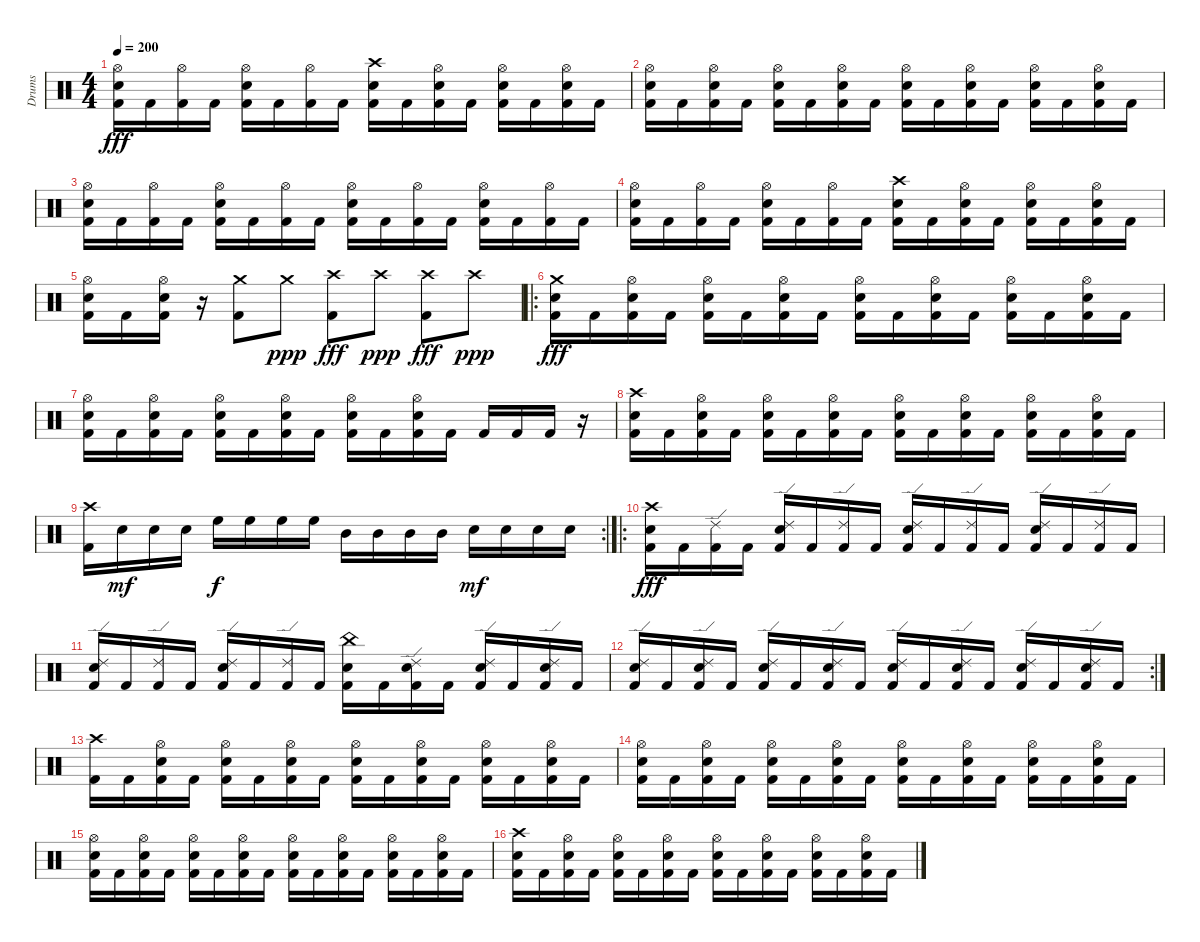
\track ("Drums" "Drums") {instrument percussion}
\staff {score}
\articulation defaults
\ts (4 4)
\tempo 200
\clef neutral
\ks c
("Hi-Hat (open)" "Electric Snare (hit)" "Kick (hit) 2").16{dy fff} "Kick (hit) 2".16 ("Hi-Hat (open)" "Kick (hit) 2").16 "Kick (hit) 2".16 ("Hi-Hat (open)" "Electric Snare (hit)" "Kick (hit) 2").16 "Kick (hit) 2".16 ("Hi-Hat (open)" "Kick (hit) 2").16 "Kick (hit) 2".16 ("Crash high (hit)" "Electric Snare (hit)" "Kick (hit) 2").16 "Kick (hit) 2".16 ("Hi-Hat (open)" "Electric Snare (hit)" "Kick (hit) 2").16 "Kick (hit) 2".16 ("Hi-Hat (open)" "Electric Snare (hit)" "Kick (hit) 2").16 "Kick (hit) 2".16 ("Hi-Hat (open)" "Electric Snare (hit)" "Kick (hit) 2").16 "Kick (hit) 2".16 |
("Hi-Hat (open)" "Electric Snare (hit)" "Kick (hit) 2").16 "Kick (hit) 2".16 ("Hi-Hat (open)" "Electric Snare (hit)" "Kick (hit) 2").16 "Kick (hit) 2".16 ("Hi-Hat (open)" "Electric Snare (hit)" "Kick (hit) 2").16 "Kick (hit) 2".16 ("Hi-Hat (open)" "Electric Snare (hit)" "Kick (hit) 2").16 "Kick (hit) 2".16 ("Hi-Hat (open)" "Electric Snare (hit)" "Kick (hit) 2").16 "Kick (hit) 2".16 ("Hi-Hat (open)" "Electric Snare (hit)" "Kick (hit) 2").16 "Kick (hit) 2".16 ("Hi-Hat (open)" "Electric Snare (hit)" "Kick (hit) 2").16 "Kick (hit) 2".16 ("Hi-Hat (open)" "Electric Snare (hit)" "Kick (hit) 2").16 "Kick (hit) 2".16 |
("Hi-Hat (open)" "Electric Snare (hit)" "Kick (hit) 2").16 "Kick (hit) 2".16 ("Hi-Hat (open)" "Kick (hit) 2").16 "Kick (hit) 2".16 ("Hi-Hat (open)" "Electric Snare (hit)" "Kick (hit) 2").16 "Kick (hit) 2".16 ("Hi-Hat (open)" "Kick (hit) 2").16 "Kick (hit) 2".16 ("Hi-Hat (open)" "Electric Snare (hit)" "Kick (hit) 2").16 "Kick (hit) 2".16 ("Hi-Hat (open)" "Kick (hit) 2").16 "Kick (hit) 2".16 ("Hi-Hat (open)" "Electric Snare (hit)" "Kick (hit) 2").16 "Kick (hit) 2".16 ("Hi-Hat (open)" "Kick (hit) 2").16 "Kick (hit) 2".16 |
("Hi-Hat (open)" "Electric Snare (hit)" "Kick (hit) 2").16 "Kick (hit) 2".16 ("Hi-Hat (open)" "Kick (hit) 2").16 "Kick (hit) 2".16 ("Hi-Hat (open)" "Electric Snare (hit)" "Kick (hit) 2").16 "Kick (hit) 2".16 ("Hi-Hat (open)" "Kick (hit) 2").16 "Kick (hit) 2".16 ("Crash high (hit)" "Electric Snare (hit)" "Kick (hit) 2").16 "Kick (hit) 2".16 ("Hi-Hat (open)" "Electric Snare (hit)" "Kick (hit) 2").16 "Kick (hit) 2".16 ("Hi-Hat (open)" "Electric Snare (hit)" "Kick (hit) 2").16 "Kick (hit) 2".16 ("Hi-Hat (open)" "Electric Snare (hit)" "Kick (hit) 2").16 "Kick (hit) 2".16 |
("Hi-Hat (open)" "Electric Snare (hit)" "Kick (hit) 2").16 "Kick (hit) 2".16 ("Hi-Hat (open)" "Electric Snare (hit)" "Kick (hit) 2").16 r.16 ("Crash medium (hit)" "Kick (hit) 2").8 "Crash medium (hit)".8{dy ppp} ("Crash high (hit)" "Kick (hit) 2").8{dy fff} "Crash high (hit)".8{dy ppp} ("Crash high (hit)" "Kick (hit) 2").8{dy fff} "Crash high (hit)".8{dy ppp} |
\ro
("Crash medium (hit)" "Electric Snare (hit)" "Kick (hit) 2").16{dy fff} "Kick (hit) 2".16 ("Hi-Hat (open)" "Electric Snare (hit)" "Kick (hit) 2").16 "Kick (hit) 2".16 ("Hi-Hat (open)" "Electric Snare (hit)" "Kick (hit) 2").16 "Kick (hit) 2".16 ("Hi-Hat (open)" "Electric Snare (hit)" "Kick (hit) 2").16 "Kick (hit) 2".16 ("Hi-Hat (open)" "Electric Snare (hit)" "Kick (hit) 2").16 "Kick (hit) 2".16 ("Hi-Hat (open)" "Electric Snare (hit)" "Kick (hit) 2").16 "Kick (hit) 2".16 ("Hi-Hat (open)" "Electric Snare (hit)" "Kick (hit) 2").16 "Kick (hit) 2".16 ("Hi-Hat (open)" "Electric Snare (hit)" "Kick (hit) 2").16 "Kick (hit) 2".16 |
("Hi-Hat (open)" "Electric Snare (hit)" "Kick (hit) 2").16 "Kick (hit) 2".16 ("Hi-Hat (open)" "Electric Snare (hit)" "Kick (hit) 2").16 "Kick (hit) 2".16 ("Hi-Hat (open)" "Electric Snare (hit)" "Kick (hit) 2").16 "Kick (hit) 2".16 ("Hi-Hat (open)" "Electric Snare (hit)" "Kick (hit) 2").16 "Kick (hit) 2".16 ("Hi-Hat (open)" "Electric Snare (hit)" "Kick (hit) 2").16 "Kick (hit) 2".16 ("Hi-Hat (open)" "Electric Snare (hit)" "Kick (hit) 2").16 "Kick (hit) 2".16 "Kick (hit) 2".16 "Kick (hit) 2".16 "Kick (hit) 2".16 r.16 |
("Crash high (hit)" "Electric Snare (hit)" "Kick (hit) 2").16 "Kick (hit) 2".16 ("Hi-Hat (open)" "Electric Snare (hit)" "Kick (hit) 2").16 "Kick (hit) 2".16 ("Hi-Hat (open)" "Electric Snare (hit)" "Kick (hit) 2").16 "Kick (hit) 2".16 ("Hi-Hat (open)" "Electric Snare (hit)" "Kick (hit) 2").16 "Kick (hit) 2".16 ("Hi-Hat (open)" "Electric Snare (hit)" "Kick (hit) 2").16 "Kick (hit) 2".16 ("Hi-Hat (open)" "Electric Snare (hit)" "Kick (hit) 2").16 "Kick (hit) 2".16 ("Hi-Hat (open)" "Electric Snare (hit)" "Kick (hit) 2").16 "Kick (hit) 2".16 ("Hi-Hat (open)" "Electric Snare (hit)" "Kick (hit) 2").16 "Kick (hit) 2".16 |
\rc 2
("Crash high (hit)" "Kick (hit) 2").16 "Electric Snare (hit)".16{dy mf} "Electric Snare (hit)".16 "Electric Snare (hit)".16 "High Floor Tom (hit)".16{dy f} "High Floor Tom (hit)".16 "High Floor Tom (hit)".16 "High Floor Tom (hit)".16 "Mid Tom (hit)".16 "Mid Tom (hit)".16 "Mid Tom (hit)".16 "Mid Tom (hit)".16 "Electric Snare (hit)".16{dy mf} "Electric Snare (hit)".16 "Electric Snare (hit)".16 "Electric Snare (hit)".16 |
\ro
("Crash high (hit)" "Electric Snare (hit)" "Kick (hit) 2").16{dy fff} "Kick (hit) 2".16 ("Ride (edge) 2" "Kick (hit) 2").16 "Kick (hit) 2".16 ("Ride (edge) 2" "Electric Snare (hit)" "Kick (hit) 2").16 "Kick (hit) 2".16 ("Ride (edge) 2" "Kick (hit) 2").16 "Kick (hit) 2".16 ("Ride (edge) 2" "Electric Snare (hit)" "Kick (hit) 2").16 "Kick (hit) 2".16 ("Ride (edge) 2" "Kick (hit) 2").16 "Kick (hit) 2".16 ("Ride (edge) 2" "Electric Snare (hit)" "Kick (hit) 2").16 "Kick (hit) 2".16 ("Ride (edge) 2" "Kick (hit) 2").16 "Kick (hit) 2".16 |
("Ride (edge) 2" "Electric Snare (hit)" "Kick (hit) 2").16 "Kick (hit) 2".16 ("Ride (edge) 2" "Kick (hit) 2").16 "Kick (hit) 2".16 ("Ride (edge) 2" "Electric Snare (hit)" "Kick (hit) 2").16 "Kick (hit) 2".16 ("Ride (edge) 2" "Kick (hit) 2").16 "Kick (hit) 2".16 ("China (hit)" "Electric Snare (hit)" "Kick (hit) 2").16 "Kick (hit) 2".16 ("Ride (edge) 2" "Electric Snare (hit)" "Kick (hit) 2").16 "Kick (hit) 2".16 ("Ride (edge) 2" "Electric Snare (hit)" "Kick (hit) 2").16 "Kick (hit) 2".16 ("Ride (edge) 2" "Electric Snare (hit)" "Kick (hit) 2").16 "Kick (hit) 2".16 |
\rc 2
("Ride (edge) 2" "Electric Snare (hit)" "Kick (hit) 2").16 "Kick (hit) 2".16 ("Ride (edge) 2" "Electric Snare (hit)" "Kick (hit) 2").16 "Kick (hit) 2".16 ("Ride (edge) 2" "Electric Snare (hit)" "Kick (hit) 2").16 "Kick (hit) 2".16 ("Ride (edge) 2" "Electric Snare (hit)" "Kick (hit) 2").16 "Kick (hit) 2".16 ("Ride (edge) 2" "Electric Snare (hit)" "Kick (hit) 2").16 "Kick (hit) 2".16 ("Ride (edge) 2" "Electric Snare (hit)" "Kick (hit) 2").16 "Kick (hit) 2".16 ("Ride (edge) 2" "Electric Snare (hit)" "Kick (hit) 2").16 "Kick (hit) 2".16 ("Ride (edge) 2" "Electric Snare (hit)" "Kick (hit) 2").16 "Kick (hit) 2".16 |
("Crash high (hit)" "Kick (hit) 2").16 "Kick (hit) 2".16 ("Hi-Hat (open)" "Electric Snare (hit)" "Kick (hit) 2").16 "Kick (hit) 2".16 ("Hi-Hat (open)" "Electric Snare (hit)" "Kick (hit) 2").16 "Kick (hit) 2".16 ("Hi-Hat (open)" "Electric Snare (hit)" "Kick (hit) 2").16 "Kick (hit) 2".16 ("Hi-Hat (open)" "Electric Snare (hit)" "Kick (hit) 2").16 "Kick (hit) 2".16 ("Hi-Hat (open)" "Electric Snare (hit)" "Kick (hit) 2").16 "Kick (hit) 2".16 ("Hi-Hat (open)" "Electric Snare (hit)" "Kick (hit) 2").16 "Kick (hit) 2".16 ("Hi-Hat (open)" "Electric Snare (hit)" "Kick (hit) 2").16 "Kick (hit) 2".16 |
("Hi-Hat (open)" "Electric Snare (hit)" "Kick (hit) 2").16 "Kick (hit) 2".16 ("Hi-Hat (open)" "Electric Snare (hit)" "Kick (hit) 2").16 "Kick (hit) 2".16 ("Hi-Hat (open)" "Electric Snare (hit)" "Kick (hit) 2").16 "Kick (hit) 2".16 ("Hi-Hat (open)" "Electric Snare (hit)" "Kick (hit) 2").16 "Kick (hit) 2".16 ("Hi-Hat (open)" "Electric Snare (hit)" "Kick (hit) 2").16 "Kick (hit) 2".16 ("Hi-Hat (open)" "Electric Snare (hit)" "Kick (hit) 2").16 "Kick (hit) 2".16 ("Hi-Hat (open)" "Electric Snare (hit)" "Kick (hit) 2").16 "Kick (hit) 2".16 ("Hi-Hat (open)" "Electric Snare (hit)" "Kick (hit) 2").16 "Kick (hit) 2".16 |
("Hi-Hat (open)" "Electric Snare (hit)" "Kick (hit) 2").16 "Kick (hit) 2".16 ("Hi-Hat (open)" "Electric Snare (hit)" "Kick (hit) 2").16 "Kick (hit) 2".16 ("Hi-Hat (open)" "Electric Snare (hit)" "Kick (hit) 2").16 "Kick (hit) 2".16 ("Hi-Hat (open)" "Electric Snare (hit)" "Kick (hit) 2").16 "Kick (hit) 2".16 ("Hi-Hat (open)" "Electric Snare (hit)" "Kick (hit) 2").16 "Kick (hit) 2".16 ("Hi-Hat (open)" "Electric Snare (hit)" "Kick (hit) 2").16 "Kick (hit) 2".16 ("Hi-Hat (open)" "Electric Snare (hit)" "Kick (hit) 2").16 "Kick (hit) 2".16 ("Hi-Hat (open)" "Electric Snare (hit)" "Kick (hit) 2").16 "Kick (hit) 2".16 |
("Crash high (hit)" "Electric Snare (hit)" "Kick (hit) 2").16 "Kick (hit) 2".16 ("Hi-Hat (open)" "Electric Snare (hit)" "Kick (hit) 2").16 "Kick (hit) 2".16 ("Hi-Hat (open)" "Electric Snare (hit)" "Kick (hit) 2").16 "Kick (hit) 2".16 ("Hi-Hat (open)" "Electric Snare (hit)" "Kick (hit) 2").16 "Kick (hit) 2".16 ("Hi-Hat (open)" "Electric Snare (hit)" "Kick (hit) 2").16 "Kick (hit) 2".16 ("Hi-Hat (open)" "Electric Snare (hit)" "Kick (hit) 2").16 "Kick (hit) 2".16 ("Hi-Hat (open)" "Electric Snare (hit)" "Kick (hit) 2").16 "Kick (hit) 2".16 ("Hi-Hat (open)" "Electric Snare (hit)" "Kick (hit) 2").16 "Kick (hit) 2".16
